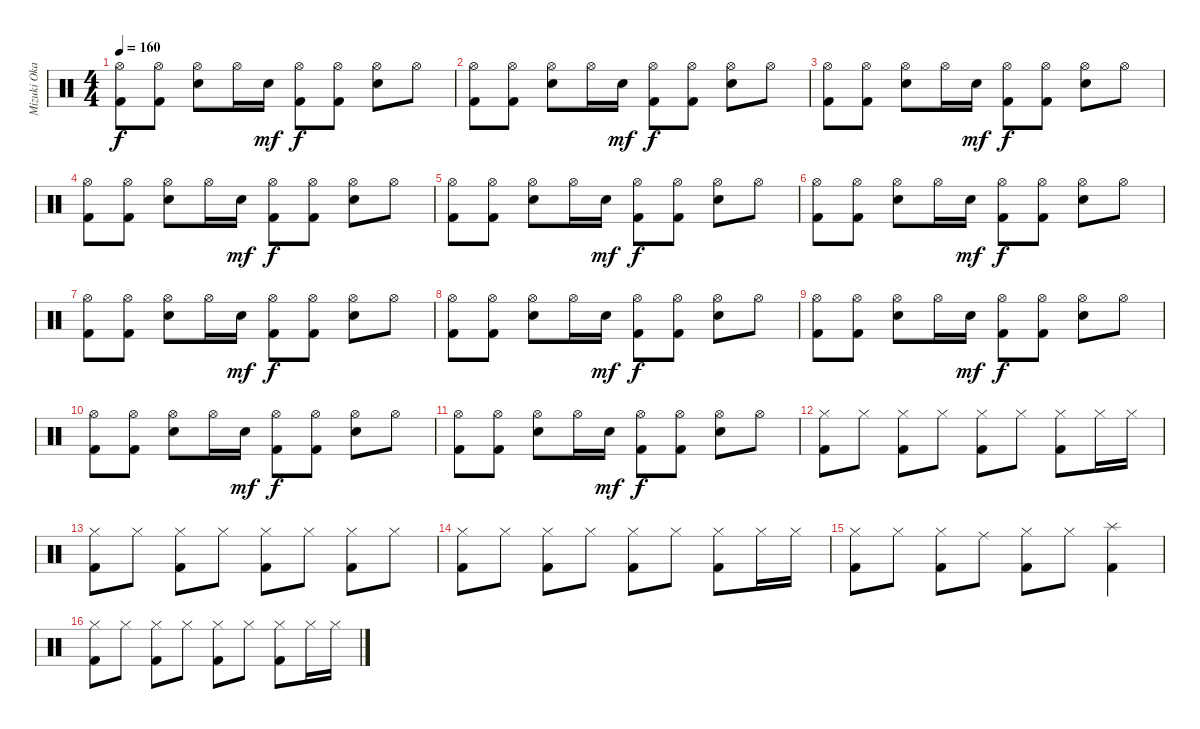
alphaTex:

\track ("Mizuki Okajima (Drums)" "Mizuki Oka") {instrument percussion}
\staff {score}
\articulation defaults
\ts (4 4)
\tempo 160
\clef neutral
\ks c
("Hi-Hat (open)" "Kick (hit) 2").8{dy f} ("Hi-Hat (open)" "Kick (hit) 2").8 ("Hi-Hat (open)" "Snare (hit) 2").8 "Hi-Hat (open)".16 "Snare (hit) 2".16{dy mf} ("Hi-Hat (open)" "Kick (hit) 2").8{dy f} ("Hi-Hat (open)" "Kick (hit) 2").8 ("Hi-Hat (open)" "Snare (hit) 2").8 "Hi-Hat (open)".8 |
("Hi-Hat (open)" "Kick (hit) 2").8 ("Hi-Hat (open)" "Kick (hit) 2").8 ("Hi-Hat (open)" "Snare (hit) 2").8 "Hi-Hat (open)".16 "Snare (hit) 2".16{dy mf} ("Hi-Hat (open)" "Kick (hit) 2").8{dy f} ("Hi-Hat (open)" "Kick (hit) 2").8 ("Hi-Hat (open)" "Snare (hit) 2").8 "Hi-Hat (open)".8 |
("Hi-Hat (open)" "Kick (hit) 2").8 ("Hi-Hat (open)" "Kick (hit) 2").8 ("Hi-Hat (open)" "Snare (hit) 2").8 "Hi-Hat (open)".16 "Snare (hit) 2".16{dy mf} ("Hi-Hat (open)" "Kick (hit) 2").8{dy f} ("Hi-Hat (open)" "Kick (hit) 2").8 ("Hi-Hat (open)" "Snare (hit) 2").8 "Hi-Hat (open)".8 |
("Hi-Hat (open)" "Kick (hit) 2").8 ("Hi-Hat (open)" "Kick (hit) 2").8 ("Hi-Hat (open)" "Snare (hit) 2").8 "Hi-Hat (open)".16 "Snare (hit) 2".16{dy mf} ("Hi-Hat (open)" "Kick (hit) 2").8{dy f} ("Hi-Hat (open)" "Kick (hit) 2").8 ("Hi-Hat (open)" "Snare (hit) 2").8 "Hi-Hat (open)".8 |
("Hi-Hat (open)" "Kick (hit) 2").8 ("Hi-Hat (open)" "Kick (hit) 2").8 ("Hi-Hat (open)" "Snare (hit) 2").8 "Hi-Hat (open)".16 "Snare (hit) 2".16{dy mf} ("Hi-Hat (open)" "Kick (hit) 2").8{dy f} ("Hi-Hat (open)" "Kick (hit) 2").8 ("Hi-Hat (open)" "Snare (hit) 2").8 "Hi-Hat (open)".8 |
("Hi-Hat (open)" "Kick (hit) 2").8 ("Hi-Hat (open)" "Kick (hit) 2").8 ("Hi-Hat (open)" "Snare (hit) 2").8 "Hi-Hat (open)".16 "Snare (hit) 2".16{dy mf} ("Hi-Hat (open)" "Kick (hit) 2").8{dy f} ("Hi-Hat (open)" "Kick (hit) 2").8 ("Hi-Hat (open)" "Snare (hit) 2").8 "Hi-Hat (open)".8 |
("Hi-Hat (open)" "Kick (hit) 2").8 ("Hi-Hat (open)" "Kick (hit) 2").8 ("Hi-Hat (open)" "Snare (hit) 2").8 "Hi-Hat (open)".16 "Snare (hit) 2".16{dy mf} ("Hi-Hat (open)" "Kick (hit) 2").8{dy f} ("Hi-Hat (open)" "Kick (hit) 2").8 ("Hi-Hat (open)" "Snare (hit) 2").8 "Hi-Hat (open)".8 |
("Hi-Hat (open)" "Kick (hit) 2").8 ("Hi-Hat (open)" "Kick (hit) 2").8 ("Hi-Hat (open)" "Snare (hit) 2").8 "Hi-Hat (open)".16 "Snare (hit) 2".16{dy mf} ("Hi-Hat (open)" "Kick (hit) 2").8{dy f} ("Hi-Hat (open)" "Kick (hit) 2").8 ("Hi-Hat (open)" "Snare (hit) 2").8 "Hi-Hat (open)".8 |
("Hi-Hat (open)" "Kick (hit) 2").8 ("Hi-Hat (open)" "Kick (hit) 2").8 ("Hi-Hat (open)" "Snare (hit) 2").8 "Hi-Hat (open)".16 "Snare (hit) 2".16{dy mf} ("Hi-Hat (open)" "Kick (hit) 2").8{dy f} ("Hi-Hat (open)" "Kick (hit) 2").8 ("Hi-Hat (open)" "Snare (hit) 2").8 "Hi-Hat (open)".8 |
("Hi-Hat (open)" "Kick (hit) 2").8 ("Hi-Hat (open)" "Kick (hit) 2").8 ("Hi-Hat (open)" "Snare (hit) 2").8 "Hi-Hat (open)".16 "Snare (hit) 2".16{dy mf} ("Hi-Hat (open)" "Kick (hit) 2").8{dy f} ("Hi-Hat (open)" "Kick (hit) 2").8 ("Hi-Hat (open)" "Snare (hit) 2").8 "Hi-Hat (open)".8 |
("Hi-Hat (open)" "Kick (hit) 2").8 ("Hi-Hat (open)" "Kick (hit) 2").8 ("Hi-Hat (open)" "Snare (hit) 2").8 "Hi-Hat (open)".16 "Snare (hit) 2".16{dy mf} ("Hi-Hat (open)" "Kick (hit) 2").8{dy f} ("Hi-Hat (open)" "Kick (hit) 2").8 ("Hi-Hat (open)" "Snare (hit) 2").8 "Hi-Hat (open)".8 |
("Hi-Hat (closed)" "Kick (hit) 2").8 "Hi-Hat (closed)".8 ("Hi-Hat (closed)" "Kick (hit) 2").8 "Hi-Hat (closed)".8 ("Hi-Hat (closed)" "Kick (hit) 2").8 "Hi-Hat (closed)".8 ("Hi-Hat (closed)" "Kick (hit) 2").8 "Hi-Hat (closed)".16 "Hi-Hat (closed)".16 |
("Hi-Hat (closed)" "Kick (hit) 2").8 "Hi-Hat (closed)".8 ("Hi-Hat (closed)" "Kick (hit) 2").8 "Hi-Hat (closed)".8 ("Hi-Hat (closed)" "Kick (hit) 2").8 "Hi-Hat (closed)".8 ("Hi-Hat (closed)" "Kick (hit) 2").8 "Hi-Hat (closed)".8 |
("Hi-Hat (closed)" "Kick (hit) 2").8 "Hi-Hat (closed)".8 ("Hi-Hat (closed)" "Kick (hit) 2").8 "Hi-Hat (closed)".8 ("Hi-Hat (closed)" "Kick (hit) 2").8 "Hi-Hat (closed)".8 ("Hi-Hat (closed)" "Kick (hit) 2").8 "Hi-Hat (closed)".16 "Hi-Hat (closed)".16 |
("Hi-Hat (closed)" "Kick (hit) 2").8 "Hi-Hat (closed)".8 ("Hi-Hat (closed)" "Kick (hit) 2").8 "Ride (middle)".8 ("Hi-Hat (closed)" "Kick (hit) 2").8 "Hi-Hat (closed)".8 ("Splash (hit)" "Kick (hit) 2").4 |
("Hi-Hat (closed)" "Kick (hit) 2").8 "Hi-Hat (closed)".8 ("Hi-Hat (closed)" "Kick (hit) 2").8 "Hi-Hat (closed)".8 ("Hi-Hat (closed)" "Kick (hit) 2").8 "Hi-Hat (closed)".8 ("Hi-Hat (closed)" "Kick (hit) 2").8 "Hi-Hat (closed)".16 "Hi-Hat (closed)".16
